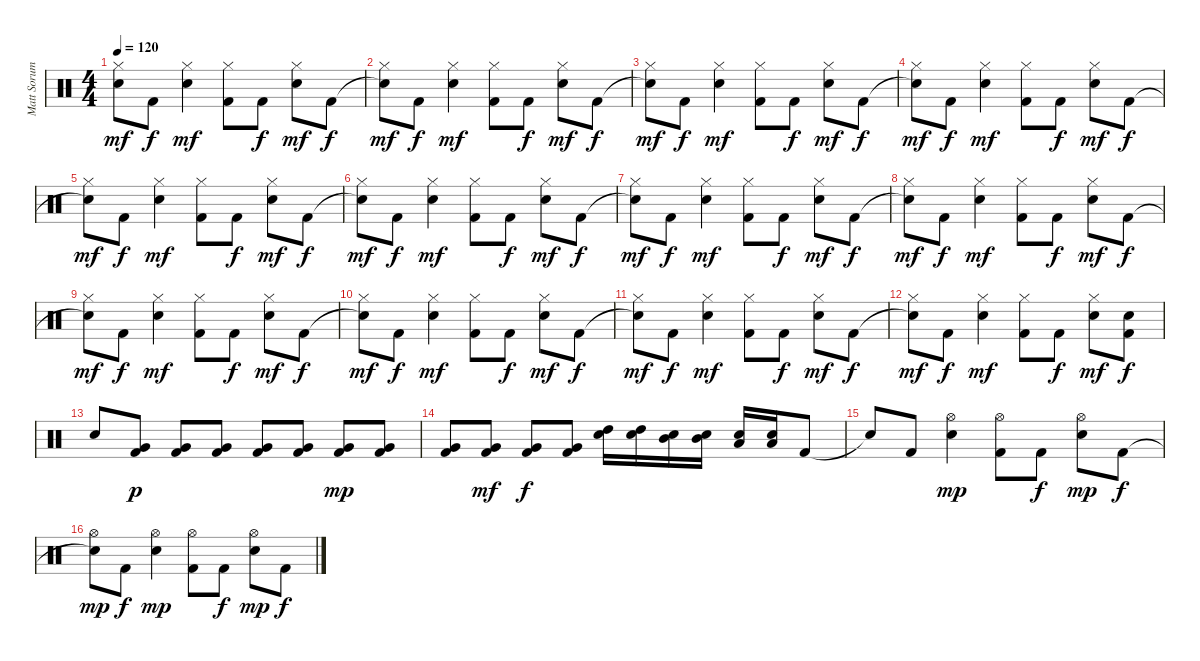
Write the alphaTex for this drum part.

\track ("Matt Sorum" "Matt Sorum") {instrument percussion}
\staff {score}
\articulation defaults
\ts (4 4)
\tempo 120
\clef neutral
\ks c
("Snare (hit)"{t} "Hi-Hat (closed)").8{dy mf} "Kick (hit) 2".8{dy f} ("Snare (hit) 2" "Hi-Hat (closed)").4{dy mf} ("Kick (hit) 2" "Hi-Hat (closed)").8 "Kick (hit) 2".8{dy f} ("Snare (hit) 2" "Hi-Hat (closed)").8{dy mf} "Kick (hit) 2".8{dy f} |
("Snare (hit)"{t} "Hi-Hat (closed)").8{dy mf} "Kick (hit) 2".8{dy f} ("Snare (hit) 2" "Hi-Hat (closed)").4{dy mf} ("Kick (hit) 2" "Hi-Hat (closed)").8 "Kick (hit) 2".8{dy f} ("Snare (hit) 2" "Hi-Hat (closed)").8{dy mf} "Kick (hit) 2".8{dy f} |
("Snare (hit)"{t} "Hi-Hat (closed)").8{dy mf} "Kick (hit) 2".8{dy f} ("Snare (hit) 2" "Hi-Hat (closed)").4{dy mf} ("Kick (hit) 2" "Hi-Hat (closed)").8 "Kick (hit) 2".8{dy f} ("Snare (hit) 2" "Hi-Hat (closed)").8{dy mf} "Kick (hit) 2".8{dy f} |
("Snare (hit)"{t} "Hi-Hat (closed)").8{dy mf} "Kick (hit) 2".8{dy f} ("Snare (hit) 2" "Hi-Hat (closed)").4{dy mf} ("Kick (hit) 2" "Hi-Hat (closed)").8 "Kick (hit) 2".8{dy f} ("Snare (hit) 2" "Hi-Hat (closed)").8{dy mf} "Kick (hit) 2".8{dy f} |
("Snare (hit)"{t} "Hi-Hat (closed)").8{dy mf} "Kick (hit) 2".8{dy f} ("Snare (hit) 2" "Hi-Hat (closed)").4{dy mf} ("Kick (hit) 2" "Hi-Hat (closed)").8 "Kick (hit) 2".8{dy f} ("Snare (hit) 2" "Hi-Hat (closed)").8{dy mf} "Kick (hit) 2".8{dy f} |
("Snare (hit)"{t} "Hi-Hat (closed)").8{dy mf} "Kick (hit) 2".8{dy f} ("Snare (hit) 2" "Hi-Hat (closed)").4{dy mf} ("Kick (hit) 2" "Hi-Hat (closed)").8 "Kick (hit) 2".8{dy f} ("Snare (hit) 2" "Hi-Hat (closed)").8{dy mf} "Kick (hit) 2".8{dy f} |
("Snare (hit)"{t} "Hi-Hat (closed)").8{dy mf} "Kick (hit) 2".8{dy f} ("Snare (hit) 2" "Hi-Hat (closed)").4{dy mf} ("Kick (hit) 2" "Hi-Hat (closed)").8 "Kick (hit) 2".8{dy f} ("Snare (hit) 2" "Hi-Hat (closed)").8{dy mf} "Kick (hit) 2".8{dy f} |
("Snare (hit)"{t} "Hi-Hat (closed)").8{dy mf} "Kick (hit) 2".8{dy f} ("Snare (hit) 2" "Hi-Hat (closed)").4{dy mf} ("Kick (hit) 2" "Hi-Hat (closed)").8 "Kick (hit) 2".8{dy f} ("Snare (hit) 2" "Hi-Hat (closed)").8{dy mf} "Kick (hit) 2".8{dy f} |
("Snare (hit)"{t} "Hi-Hat (closed)").8{dy mf} "Kick (hit) 2".8{dy f} ("Snare (hit) 2" "Hi-Hat (closed)").4{dy mf} ("Kick (hit) 2" "Hi-Hat (closed)").8 "Kick (hit) 2".8{dy f} ("Snare (hit) 2" "Hi-Hat (closed)").8{dy mf} "Kick (hit) 2".8{dy f} |
("Snare (hit)"{t} "Hi-Hat (closed)").8{dy mf} "Kick (hit) 2".8{dy f} ("Snare (hit) 2" "Hi-Hat (closed)").4{dy mf} ("Kick (hit) 2" "Hi-Hat (closed)").8 "Kick (hit) 2".8{dy f} ("Snare (hit) 2" "Hi-Hat (closed)").8{dy mf} "Kick (hit) 2".8{dy f} |
("Snare (hit)"{t} "Hi-Hat (closed)").8{dy mf} "Kick (hit) 2".8{dy f} ("Snare (hit) 2" "Hi-Hat (closed)").4{dy mf} ("Kick (hit) 2" "Hi-Hat (closed)").8 "Kick (hit) 2".8{dy f} ("Snare (hit) 2" "Hi-Hat (closed)").8{dy mf} "Kick (hit) 2".8{dy f} |
("Snare (hit)"{t} "Hi-Hat (closed)").8{dy mf} "Kick (hit) 2".8{dy f} ("Snare (hit) 2" "Hi-Hat (closed)").4{dy mf} ("Kick (hit) 2" "Hi-Hat (closed)").8 "Kick (hit) 2".8{dy f} ("Snare (hit) 2" "Hi-Hat (closed)").8{dy mf} ("Kick (hit) 2" "Snare (hit) 2").8{dy f} |
"Snare (hit) 2".8 ("Kick (hit) 2" "Very Low Tom (hit)").8{dy p} ("Kick (hit) 2" "Very Low Tom (hit)").8 ("Kick (hit) 2" "Very Low Tom (hit)").8 ("Kick (hit) 2" "Very Low Tom (hit)").8 ("Kick (hit) 2" "Very Low Tom (hit)").8 ("Kick (hit) 2" "Very Low Tom (hit)").8{dy mp} ("Kick (hit) 2" "Very Low Tom (hit)").8 |
("Kick (hit) 2" "Very Low Tom (hit)").8 ("Kick (hit) 2" "Very Low Tom (hit)").8{dy mf} ("Kick (hit) 2" "Very Low Tom (hit)").8{dy f} ("Kick (hit) 2" "Very Low Tom (hit)").8 ("Snare (hit) 2" "High Tom (hit)").16 ("Snare (hit) 2" "High Tom (hit)").16 ("Snare (hit) 2" "Mid Tom (hit)").16 ("Snare (hit) 2" "Mid Tom (hit)").16 ("Snare (hit) 2" "Low Tom (hit)").16 ("Snare (hit) 2" "Low Tom (hit)").16 "Kick (hit) 2".8 |
"Snare (hit)"{t}.8 "Kick (hit) 2".8 ("Snare (hit) 2" "Hi-Hat (open)").4{dy mp} ("Kick (hit) 2" "Hi-Hat (open)").8 "Kick (hit) 2".8{dy f} ("Snare (hit) 2" "Hi-Hat (open)").8{dy mp} "Kick (hit) 2".8{dy f} |
("Snare (hit)"{t} "Hi-Hat (open)").8{dy mp} "Kick (hit) 2".8{dy f} ("Snare (hit) 2" "Hi-Hat (open)").4{dy mp} ("Kick (hit) 2" "Hi-Hat (open)").8 "Kick (hit) 2".8{dy f} ("Snare (hit) 2" "Hi-Hat (open)").8{dy mp} "Kick (hit) 2".8{dy f}
